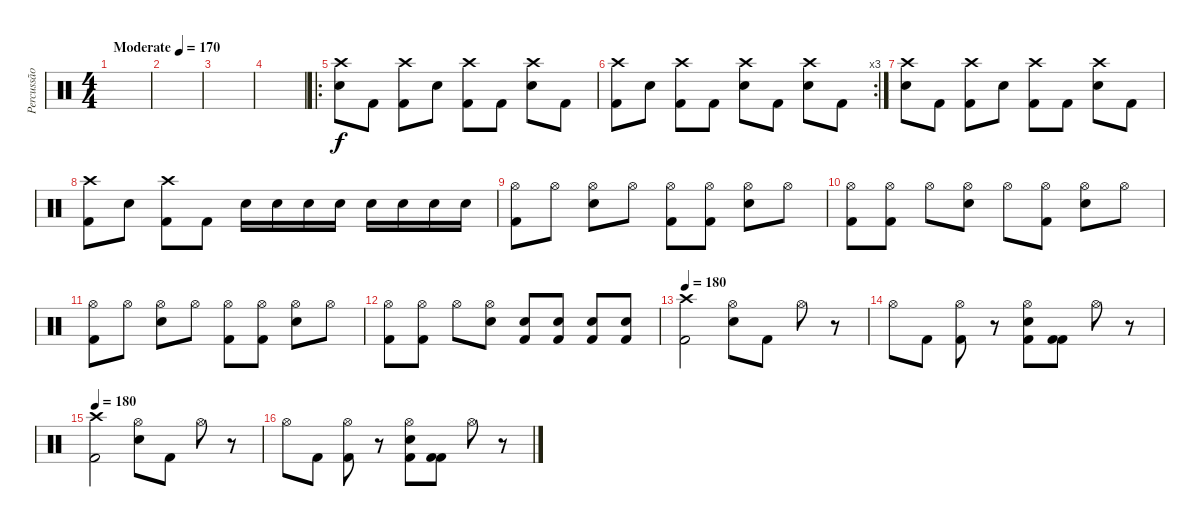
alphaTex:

\track ("Percussão" "Percussão") {instrument percussion}
\staff {score}
\articulation defaults
\ts (4 4)
\tempo (170 "Moderate")
\clef neutral
\ks c
|
|
|
|
\ro
("Crash high (hit)" "Electric Snare (hit)").8 "Kick (hit) 2".8 ("Crash high (hit)" "Kick (hit) 2").8 "Electric Snare (hit)".8 ("Crash high (hit)" "Kick (hit) 2").8 "Kick (hit) 2".8 ("Crash high (hit)" "Electric Snare (hit)").8 "Kick (hit) 2".8 |
\rc 3
("Crash high (hit)" "Kick (hit) 2").8 "Electric Snare (hit)".8 ("Crash high (hit)" "Kick (hit) 2").8 "Kick (hit) 2".8 ("Crash high (hit)" "Electric Snare (hit)").8 "Kick (hit) 2".8 ("Crash high (hit)" "Electric Snare (hit)").8 "Kick (hit) 2".8 |
("Crash high (hit)" "Electric Snare (hit)").8 "Kick (hit) 2".8 ("Crash high (hit)" "Kick (hit) 2").8 "Electric Snare (hit)".8 ("Crash high (hit)" "Kick (hit) 2").8 "Kick (hit) 2".8 ("Crash high (hit)" "Electric Snare (hit)").8 "Kick (hit) 2".8 |
("Crash high (hit)" "Kick (hit) 2").8 "Electric Snare (hit)".8 ("Crash high (hit)" "Kick (hit) 2").8 "Kick (hit) 2".8 "Electric Snare (hit)".16 "Electric Snare (hit)".16 "Electric Snare (hit)".16 "Electric Snare (hit)".16 "Electric Snare (hit)".16 "Electric Snare (hit)".16 "Electric Snare (hit)".16 "Electric Snare (hit)".16 |
("Hi-Hat (open)" "Kick (hit) 2").8 "Hi-Hat (open)".8 ("Hi-Hat (open)" "Electric Snare (hit)").8 "Hi-Hat (open)".8 ("Hi-Hat (open)" "Kick (hit) 2").8 ("Hi-Hat (open)" "Kick (hit) 2").8 ("Hi-Hat (open)" "Electric Snare (hit)").8 "Hi-Hat (open)".8 |
("Hi-Hat (open)" "Kick (hit) 2").8 ("Hi-Hat (open)" "Kick (hit) 2").8 "Hi-Hat (open)".8 ("Hi-Hat (open)" "Electric Snare (hit)").8 "Hi-Hat (open)".8 ("Hi-Hat (open)" "Kick (hit) 2").8 ("Hi-Hat (open)" "Electric Snare (hit)").8 "Hi-Hat (open)".8 |
("Hi-Hat (open)" "Kick (hit) 2").8 "Hi-Hat (open)".8 ("Hi-Hat (open)" "Electric Snare (hit)").8 "Hi-Hat (open)".8 ("Hi-Hat (open)" "Kick (hit) 2").8 ("Hi-Hat (open)" "Kick (hit) 2").8 ("Hi-Hat (open)" "Electric Snare (hit)").8 "Hi-Hat (open)".8 |
("Hi-Hat (open)" "Kick (hit) 2").8 ("Hi-Hat (open)" "Kick (hit) 2").8 "Hi-Hat (open)".8 ("Hi-Hat (open)" "Electric Snare (hit)").8 ("Electric Snare (hit)" "Kick (hit) 2").8 ("Electric Snare (hit)" "Kick (hit) 2").8 ("Electric Snare (hit)" "Kick (hit) 2").8 ("Electric Snare (hit)" "Kick (hit) 2").8 |
\tempo 180
("Crash high (hit)" "Kick (hit) 2").2 ("Hi-Hat (open)" "Electric Snare (hit)").8 "Kick (hit) 2".8 "Hi-Hat (open)".8 r.8 |
"Hi-Hat (open)".8 "Kick (hit) 2".8 ("Hi-Hat (open)" "Kick (hit) 2").8 r.8 ("Hi-Hat (open)" "Electric Snare (hit)" "Kick (hit) 2").8 ("Kick (hit) 2" "Kick (hit) 2").8 "Hi-Hat (open)".8 r.8 |
\tempo 180
("Crash high (hit)" "Kick (hit) 2").2 ("Hi-Hat (open)" "Electric Snare (hit)").8 "Kick (hit) 2".8 "Hi-Hat (open)".8 r.8 |
"Hi-Hat (open)".8 "Kick (hit) 2".8 ("Hi-Hat (open)" "Kick (hit) 2").8 r.8 ("Hi-Hat (open)" "Electric Snare (hit)" "Kick (hit) 2").8 ("Kick (hit) 2" "Kick (hit) 2").8 "Hi-Hat (open)".8 r.8
